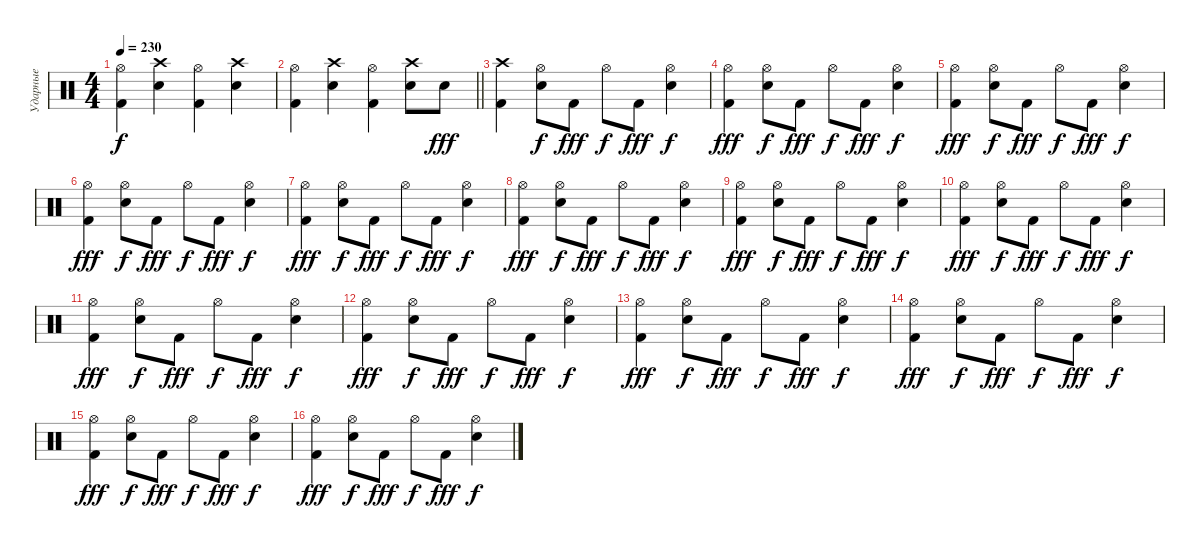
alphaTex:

\track ("Ударные" "Ударные") {instrument percussion}
\staff
\articulation defaults
\ts (4 4)
\tempo 230
\clef neutral
\ks c
("Kick (hit) 2" "Hi-Hat (open)").4{dy f} ("Snare (hit) 2" "Crash high (hit)").4 ("Kick (hit) 2" "Hi-Hat (open)").4 ("Snare (hit) 2" "Crash high (hit)").4 |
\barLineRight lightlight
("Kick (hit) 2" "Hi-Hat (open)").4 ("Snare (hit) 2" "Crash high (hit)").4 ("Kick (hit) 2" "Hi-Hat (open)").4 ("Snare (hit) 2" "Crash high (hit)").8 "Snare (hit) 2".8{dy fff} |
("Kick (hit) 2" "Crash high (hit)").4 ("Snare (hit) 2" "Hi-Hat (open)").8{dy f} "Kick (hit) 2".8{dy fff} "Hi-Hat (open)".8{dy f} "Kick (hit) 2".8{dy fff} ("Snare (hit) 2" "Hi-Hat (open)").4{dy f} |
("Kick (hit) 2" "Hi-Hat (open)").4{dy fff} ("Snare (hit) 2" "Hi-Hat (open)").8{dy f} "Kick (hit) 2".8{dy fff} "Hi-Hat (open)".8{dy f} "Kick (hit) 2".8{dy fff} ("Snare (hit) 2" "Hi-Hat (open)").4{dy f} |
("Kick (hit) 2" "Hi-Hat (open)").4{dy fff} ("Snare (hit) 2" "Hi-Hat (open)").8{dy f} "Kick (hit) 2".8{dy fff} "Hi-Hat (open)".8{dy f} "Kick (hit) 2".8{dy fff} ("Snare (hit) 2" "Hi-Hat (open)").4{dy f} |
("Kick (hit) 2" "Hi-Hat (open)").4{dy fff} ("Snare (hit) 2" "Hi-Hat (open)").8{dy f} "Kick (hit) 2".8{dy fff} "Hi-Hat (open)".8{dy f} "Kick (hit) 2".8{dy fff} ("Snare (hit) 2" "Hi-Hat (open)").4{dy f} |
("Kick (hit) 2" "Hi-Hat (open)").4{dy fff} ("Snare (hit) 2" "Hi-Hat (open)").8{dy f} "Kick (hit) 2".8{dy fff} "Hi-Hat (open)".8{dy f} "Kick (hit) 2".8{dy fff} ("Snare (hit) 2" "Hi-Hat (open)").4{dy f} |
("Kick (hit) 2" "Hi-Hat (open)").4{dy fff} ("Snare (hit) 2" "Hi-Hat (open)").8{dy f} "Kick (hit) 2".8{dy fff} "Hi-Hat (open)".8{dy f} "Kick (hit) 2".8{dy fff} ("Snare (hit) 2" "Hi-Hat (open)").4{dy f} |
("Kick (hit) 2" "Hi-Hat (open)").4{dy fff} ("Snare (hit) 2" "Hi-Hat (open)").8{dy f} "Kick (hit) 2".8{dy fff} "Hi-Hat (open)".8{dy f} "Kick (hit) 2".8{dy fff} ("Snare (hit) 2" "Hi-Hat (open)").4{dy f} |
("Kick (hit) 2" "Hi-Hat (open)").4{dy fff} ("Snare (hit) 2" "Hi-Hat (open)").8{dy f} "Kick (hit) 2".8{dy fff} "Hi-Hat (open)".8{dy f} "Kick (hit) 2".8{dy fff} ("Snare (hit) 2" "Hi-Hat (open)").4{dy f} |
("Kick (hit) 2" "Hi-Hat (open)").4{dy fff} ("Snare (hit) 2" "Hi-Hat (open)").8{dy f} "Kick (hit) 2".8{dy fff} "Hi-Hat (open)".8{dy f} "Kick (hit) 2".8{dy fff} ("Snare (hit) 2" "Hi-Hat (open)").4{dy f} |
("Kick (hit) 2" "Hi-Hat (open)").4{dy fff} ("Snare (hit) 2" "Hi-Hat (open)").8{dy f} "Kick (hit) 2".8{dy fff} "Hi-Hat (open)".8{dy f} "Kick (hit) 2".8{dy fff} ("Snare (hit) 2" "Hi-Hat (open)").4{dy f} |
("Kick (hit) 2" "Hi-Hat (open)").4{dy fff} ("Snare (hit) 2" "Hi-Hat (open)").8{dy f} "Kick (hit) 2".8{dy fff} "Hi-Hat (open)".8{dy f} "Kick (hit) 2".8{dy fff} ("Snare (hit) 2" "Hi-Hat (open)").4{dy f} |
("Kick (hit) 2" "Hi-Hat (open)").4{dy fff} ("Snare (hit) 2" "Hi-Hat (open)").8{dy f} "Kick (hit) 2".8{dy fff} "Hi-Hat (open)".8{dy f} "Kick (hit) 2".8{dy fff} ("Snare (hit) 2" "Hi-Hat (open)").4{dy f} |
("Kick (hit) 2" "Hi-Hat (open)").4{dy fff} ("Snare (hit) 2" "Hi-Hat (open)").8{dy f} "Kick (hit) 2".8{dy fff} "Hi-Hat (open)".8{dy f} "Kick (hit) 2".8{dy fff} ("Snare (hit) 2" "Hi-Hat (open)").4{dy f} |
("Kick (hit) 2" "Hi-Hat (open)").4{dy fff} ("Snare (hit) 2" "Hi-Hat (open)").8{dy f} "Kick (hit) 2".8{dy fff} "Hi-Hat (open)".8{dy f} "Kick (hit) 2".8{dy fff} ("Snare (hit) 2" "Hi-Hat (open)").4{dy f}
